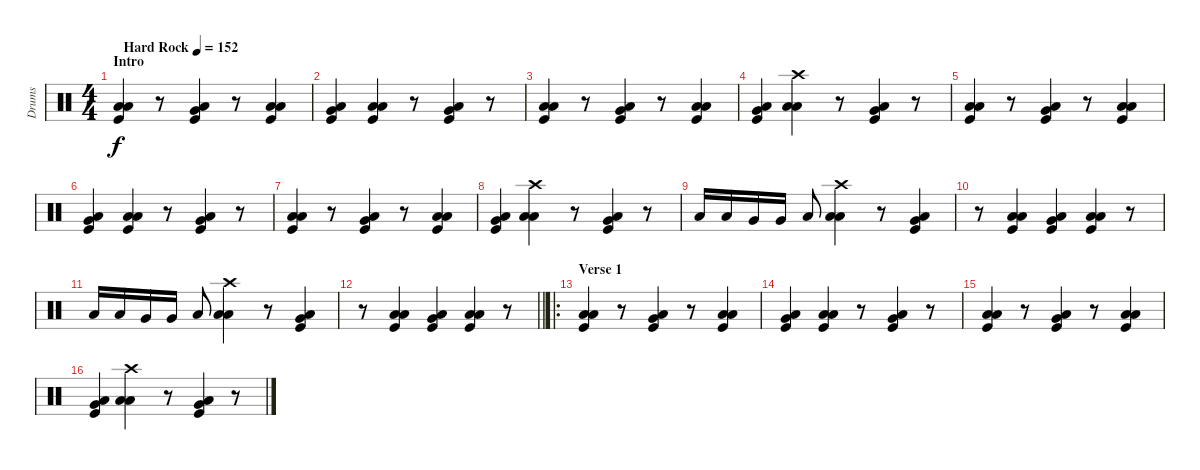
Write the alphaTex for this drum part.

\track ("Drums" "Drums") {instrument percussion}
\staff {score}
\articulation defaults
\ts (4 4)
\section ("" "Intro")
\tempo (152 "Hard Rock")
\clef neutral
\ks c
("Low Tom (hit)" "Kick (hit)" "Low Floor Tom (hit)").4{dy f} r.8 ("Kick (hit)" "Very Low Tom (hit)" "Low Floor Tom (hit)").4 r.8 ("Low Tom (hit)" "Kick (hit)" "Low Floor Tom (hit)").4 |
("Kick (hit)" "Very Low Tom (hit)" "Low Floor Tom (hit)").4 ("Low Tom (hit)" "Kick (hit)" "Low Floor Tom (hit)").4 r.8 ("Kick (hit)" "Very Low Tom (hit)" "Low Floor Tom (hit)").4 r.8 |
("Low Tom (hit)" "Kick (hit)" "Low Floor Tom (hit)").4 r.8 ("Kick (hit)" "Very Low Tom (hit)" "Low Floor Tom (hit)").4 r.8 ("Low Tom (hit)" "Kick (hit)" "Low Floor Tom (hit)").4 |
("Kick (hit)" "Very Low Tom (hit)" "Low Floor Tom (hit)").4 ("Low Tom (hit)" "Low Floor Tom (hit)" "Crash high (hit)").4 r.8 ("Kick (hit)" "Very Low Tom (hit)" "Low Floor Tom (hit)").4 r.8 |
("Low Tom (hit)" "Kick (hit)" "Low Floor Tom (hit)").4 r.8 ("Kick (hit)" "Very Low Tom (hit)" "Low Floor Tom (hit)").4 r.8 ("Low Tom (hit)" "Kick (hit)" "Low Floor Tom (hit)").4 |
("Kick (hit)" "Very Low Tom (hit)" "Low Floor Tom (hit)").4 ("Low Tom (hit)" "Kick (hit)" "Low Floor Tom (hit)").4 r.8 ("Kick (hit)" "Very Low Tom (hit)" "Low Floor Tom (hit)").4 r.8 |
("Low Tom (hit)" "Kick (hit)" "Low Floor Tom (hit)").4 r.8 ("Kick (hit)" "Very Low Tom (hit)" "Low Floor Tom (hit)").4 r.8 ("Low Tom (hit)" "Kick (hit)" "Low Floor Tom (hit)").4 |
("Kick (hit)" "Very Low Tom (hit)" "Low Floor Tom (hit)").4 ("Low Tom (hit)" "Low Floor Tom (hit)" "Crash high (hit)").4 r.8 ("Kick (hit)" "Very Low Tom (hit)" "Low Floor Tom (hit)").4 r.8 |
"Low Tom (hit)".16 "Low Tom (hit)".16 "Very Low Tom (hit)".16 "Very Low Tom (hit)".16 "Low Floor Tom (hit)".8 ("Low Tom (hit)" "Low Floor Tom (hit)" "Crash high (hit)").4 r.8 ("Kick (hit)" "Very Low Tom (hit)" "Low Floor Tom (hit)").4 |
r.8 ("Low Tom (hit)" "Kick (hit)" "Low Floor Tom (hit)").4 ("Kick (hit)" "Very Low Tom (hit)" "Low Floor Tom (hit)").4 ("Low Tom (hit)" "Kick (hit)" "Low Floor Tom (hit)").4 r.8 |
"Low Tom (hit)".16 "Low Tom (hit)".16 "Very Low Tom (hit)".16 "Very Low Tom (hit)".16 "Low Floor Tom (hit)".8 ("Low Tom (hit)" "Low Floor Tom (hit)" "Crash high (hit)").4 r.8 ("Kick (hit)" "Very Low Tom (hit)" "Low Floor Tom (hit)").4 |
\barLineRight lightlight
r.8 ("Low Tom (hit)" "Kick (hit)" "Low Floor Tom (hit)").4 ("Kick (hit)" "Very Low Tom (hit)" "Low Floor Tom (hit)").4 ("Low Tom (hit)" "Kick (hit)" "Low Floor Tom (hit)").4 r.8 |
\ro
\section ("" "Verse 1")
("Low Tom (hit)" "Kick (hit)" "Low Floor Tom (hit)").4 r.8 ("Kick (hit)" "Very Low Tom (hit)" "Low Floor Tom (hit)").4 r.8 ("Low Tom (hit)" "Kick (hit)" "Low Floor Tom (hit)").4 |
("Kick (hit)" "Very Low Tom (hit)" "Low Floor Tom (hit)").4 ("Low Tom (hit)" "Kick (hit)" "Low Floor Tom (hit)").4 r.8 ("Kick (hit)" "Very Low Tom (hit)" "Low Floor Tom (hit)").4 r.8 |
("Low Tom (hit)" "Kick (hit)" "Low Floor Tom (hit)").4 r.8 ("Kick (hit)" "Very Low Tom (hit)" "Low Floor Tom (hit)").4 r.8 ("Low Tom (hit)" "Kick (hit)" "Low Floor Tom (hit)").4 |
("Kick (hit)" "Very Low Tom (hit)" "Low Floor Tom (hit)").4 ("Low Tom (hit)" "Low Floor Tom (hit)" "Crash high (hit)").4 r.8 ("Kick (hit)" "Very Low Tom (hit)" "Low Floor Tom (hit)").4 r.8
